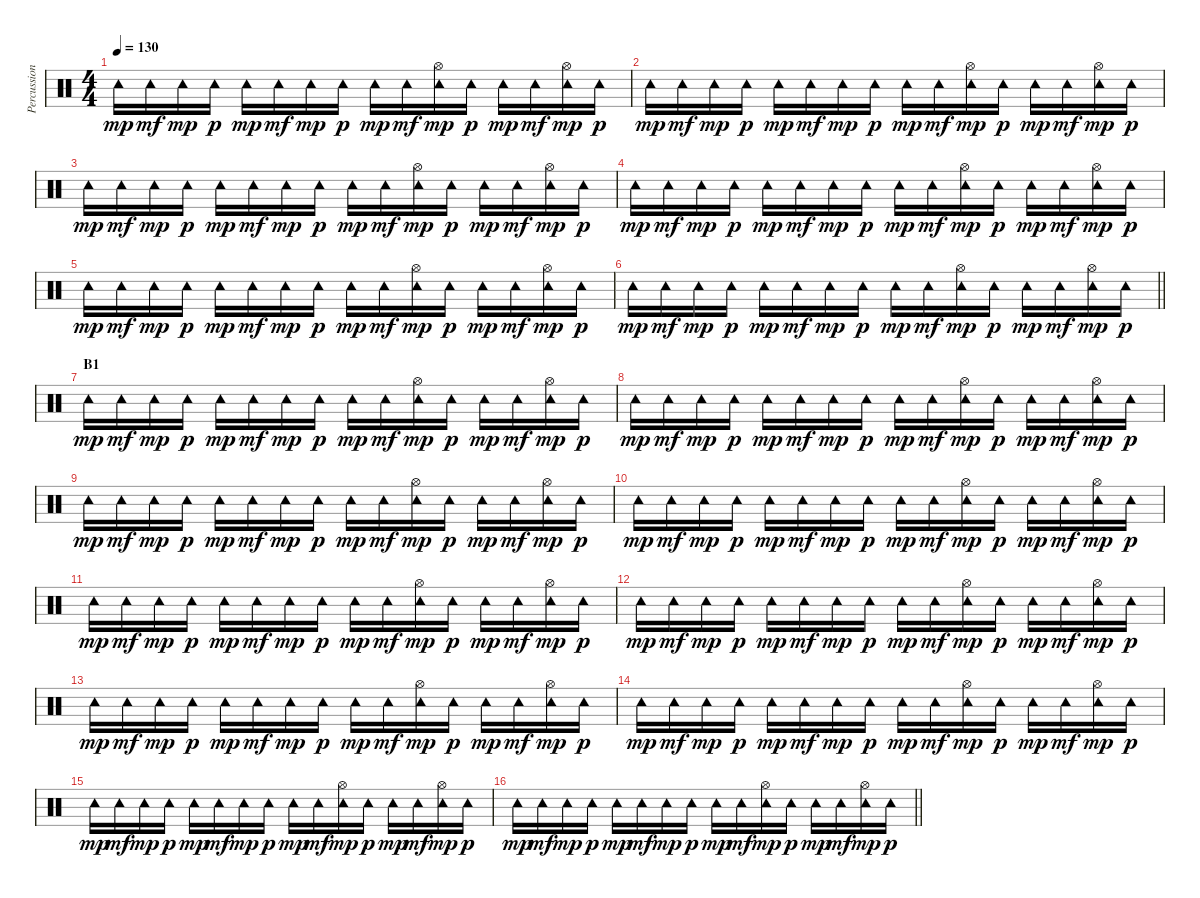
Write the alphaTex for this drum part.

\track ("Percussion (Programmed)" "Percussion") {instrument percussion}
\staff {score}
\articulation defaults
\ts (4 4)
\tempo 130
\clef neutral
\ks c "Tambourine (hit)".16{dy mp} "Tambourine (hit)".16{dy mf} "Tambourine (hit)".16{dy mp} "Tambourine (hit)".16{dy p} "Tambourine (hit)".16{dy mp} "Tambourine (hit)".16{dy mf} "Tambourine (hit)".16{dy mp} "Tambourine (hit)".16{dy p} "Tambourine (hit)".16{dy mp} "Tambourine (hit)".16{dy mf}
("Tambourine (hit)" "Hi-Hat (open)").16{dy mp} "Tambourine (hit)".16{dy p} "Tambourine (hit)".16{dy mp} "Tambourine (hit)".16{dy mf} ("Tambourine (hit)" "Hi-Hat (open)").16{dy mp} "Tambourine (hit)".16{dy p} |
"Tambourine (hit)".16{dy mp} "Tambourine (hit)".16{dy mf} "Tambourine (hit)".16{dy mp} "Tambourine (hit)".16{dy p} "Tambourine (hit)".16{dy mp} "Tambourine (hit)".16{dy mf} "Tambourine (hit)".16{dy mp} "Tambourine (hit)".16{dy p} "Tambourine (hit)".16{dy mp} "Tambourine (hit)".16{dy mf} ("Tambourine (hit)" "Hi-Hat (open)").16{dy mp} "Tambourine (hit)".16{dy p} "Tambourine (hit)".16{dy mp} "Tambourine (hit)".16{dy mf} ("Tambourine (hit)" "Hi-Hat (open)").16{dy mp} "Tambourine (hit)".16{dy p} |
"Tambourine (hit)".16{dy mp} "Tambourine (hit)".16{dy mf} "Tambourine (hit)".16{dy mp} "Tambourine (hit)".16{dy p} "Tambourine (hit)".16{dy mp} "Tambourine (hit)".16{dy mf} "Tambourine (hit)".16{dy mp} "Tambourine (hit)".16{dy p} "Tambourine (hit)".16{dy mp} "Tambourine (hit)".16{dy mf} ("Tambourine (hit)" "Hi-Hat (open)").16{dy mp} "Tambourine (hit)".16{dy p} "Tambourine (hit)".16{dy mp} "Tambourine (hit)".16{dy mf} ("Tambourine (hit)" "Hi-Hat (open)").16{dy mp} "Tambourine (hit)".16{dy p} |
"Tambourine (hit)".16{dy mp} "Tambourine (hit)".16{dy mf} "Tambourine (hit)".16{dy mp} "Tambourine (hit)".16{dy p} "Tambourine (hit)".16{dy mp} "Tambourine (hit)".16{dy mf} "Tambourine (hit)".16{dy mp} "Tambourine (hit)".16{dy p} "Tambourine (hit)".16{dy mp} "Tambourine (hit)".16{dy mf} ("Tambourine (hit)" "Hi-Hat (open)").16{dy mp} "Tambourine (hit)".16{dy p} "Tambourine (hit)".16{dy mp} "Tambourine (hit)".16{dy mf} ("Tambourine (hit)" "Hi-Hat (open)").16{dy mp} "Tambourine (hit)".16{dy p} |
"Tambourine (hit)".16{dy mp} "Tambourine (hit)".16{dy mf} "Tambourine (hit)".16{dy mp} "Tambourine (hit)".16{dy p} "Tambourine (hit)".16{dy mp} "Tambourine (hit)".16{dy mf} "Tambourine (hit)".16{dy mp} "Tambourine (hit)".16{dy p} "Tambourine (hit)".16{dy mp} "Tambourine (hit)".16{dy mf} ("Tambourine (hit)" "Hi-Hat (open)").16{dy mp} "Tambourine (hit)".16{dy p} "Tambourine (hit)".16{dy mp} "Tambourine (hit)".16{dy mf} ("Tambourine (hit)" "Hi-Hat (open)").16{dy mp} "Tambourine (hit)".16{dy p} |
\barLineRight lightlight "Tambourine (hit)".16{dy mp} "Tambourine (hit)".16{dy mf} "Tambourine (hit)".16{dy mp} "Tambourine (hit)".16{dy p} "Tambourine (hit)".16{dy mp} "Tambourine (hit)".16{dy mf} "Tambourine (hit)".16{dy mp} "Tambourine (hit)".16{dy p} "Tambourine (hit)".16{dy mp} "Tambourine (hit)".16{dy mf}
("Tambourine (hit)" "Hi-Hat (open)").16{dy mp} "Tambourine (hit)".16{dy p} "Tambourine (hit)".16{dy mp} "Tambourine (hit)".16{dy mf} ("Tambourine (hit)" "Hi-Hat (open)").16{dy mp} "Tambourine (hit)".16{dy p} |
\section ("" "B1")
"Tambourine (hit)".16{dy mp} "Tambourine (hit)".16{dy mf} "Tambourine (hit)".16{dy mp} "Tambourine (hit)".16{dy p} "Tambourine (hit)".16{dy mp} "Tambourine (hit)".16{dy mf} "Tambourine (hit)".16{dy mp} "Tambourine (hit)".16{dy p} "Tambourine (hit)".16{dy mp} "Tambourine (hit)".16{dy mf} ("Tambourine (hit)" "Hi-Hat (open)").16{dy mp} "Tambourine (hit)".16{dy p} "Tambourine (hit)".16{dy mp} "Tambourine (hit)".16{dy mf} ("Tambourine (hit)" "Hi-Hat (open)").16{dy mp} "Tambourine (hit)".16{dy p} |
"Tambourine (hit)".16{dy mp} "Tambourine (hit)".16{dy mf} "Tambourine (hit)".16{dy mp} "Tambourine (hit)".16{dy p} "Tambourine (hit)".16{dy mp} "Tambourine (hit)".16{dy mf} "Tambourine (hit)".16{dy mp} "Tambourine (hit)".16{dy p} "Tambourine (hit)".16{dy mp} "Tambourine (hit)".16{dy mf} ("Tambourine (hit)" "Hi-Hat (open)").16{dy mp} "Tambourine (hit)".16{dy p} "Tambourine (hit)".16{dy mp} "Tambourine (hit)".16{dy mf} ("Tambourine (hit)" "Hi-Hat (open)").16{dy mp} "Tambourine (hit)".16{dy p} |
"Tambourine (hit)".16{dy mp} "Tambourine (hit)".16{dy mf} "Tambourine (hit)".16{dy mp} "Tambourine (hit)".16{dy p} "Tambourine (hit)".16{dy mp} "Tambourine (hit)".16{dy mf} "Tambourine (hit)".16{dy mp} "Tambourine (hit)".16{dy p} "Tambourine (hit)".16{dy mp} "Tambourine (hit)".16{dy mf} ("Tambourine (hit)" "Hi-Hat (open)").16{dy mp} "Tambourine (hit)".16{dy p} "Tambourine (hit)".16{dy mp} "Tambourine (hit)".16{dy mf} ("Tambourine (hit)" "Hi-Hat (open)").16{dy mp} "Tambourine (hit)".16{dy p} |
"Tambourine (hit)".16{dy mp} "Tambourine (hit)".16{dy mf} "Tambourine (hit)".16{dy mp} "Tambourine (hit)".16{dy p} "Tambourine (hit)".16{dy mp} "Tambourine (hit)".16{dy mf} "Tambourine (hit)".16{dy mp} "Tambourine (hit)".16{dy p} "Tambourine (hit)".16{dy mp} "Tambourine (hit)".16{dy mf} ("Tambourine (hit)" "Hi-Hat (open)").16{dy mp} "Tambourine (hit)".16{dy p} "Tambourine (hit)".16{dy mp} "Tambourine (hit)".16{dy mf} ("Tambourine (hit)" "Hi-Hat (open)").16{dy mp} "Tambourine (hit)".16{dy p} |
"Tambourine (hit)".16{dy mp} "Tambourine (hit)".16{dy mf} "Tambourine (hit)".16{dy mp} "Tambourine (hit)".16{dy p} "Tambourine (hit)".16{dy mp} "Tambourine (hit)".16{dy mf} "Tambourine (hit)".16{dy mp} "Tambourine (hit)".16{dy p} "Tambourine (hit)".16{dy mp} "Tambourine (hit)".16{dy mf} ("Tambourine (hit)" "Hi-Hat (open)").16{dy mp} "Tambourine (hit)".16{dy p} "Tambourine (hit)".16{dy mp} "Tambourine (hit)".16{dy mf} ("Tambourine (hit)" "Hi-Hat (open)").16{dy mp} "Tambourine (hit)".16{dy p} |
"Tambourine (hit)".16{dy mp} "Tambourine (hit)".16{dy mf} "Tambourine (hit)".16{dy mp} "Tambourine (hit)".16{dy p} "Tambourine (hit)".16{dy mp} "Tambourine (hit)".16{dy mf} "Tambourine (hit)".16{dy mp} "Tambourine (hit)".16{dy p} "Tambourine (hit)".16{dy mp} "Tambourine (hit)".16{dy mf} ("Tambourine (hit)" "Hi-Hat (open)").16{dy mp} "Tambourine (hit)".16{dy p} "Tambourine (hit)".16{dy mp} "Tambourine (hit)".16{dy mf} ("Tambourine (hit)" "Hi-Hat (open)").16{dy mp} "Tambourine (hit)".16{dy p} |
"Tambourine (hit)".16{dy mp} "Tambourine (hit)".16{dy mf} "Tambourine (hit)".16{dy mp} "Tambourine (hit)".16{dy p} "Tambourine (hit)".16{dy mp} "Tambourine (hit)".16{dy mf} "Tambourine (hit)".16{dy mp} "Tambourine (hit)".16{dy p} "Tambourine (hit)".16{dy mp} "Tambourine (hit)".16{dy mf} ("Tambourine (hit)" "Hi-Hat (open)").16{dy mp} "Tambourine (hit)".16{dy p} "Tambourine (hit)".16{dy mp} "Tambourine (hit)".16{dy mf} ("Tambourine (hit)" "Hi-Hat (open)").16{dy mp} "Tambourine (hit)".16{dy p} |
"Tambourine (hit)".16{dy mp} "Tambourine (hit)".16{dy mf} "Tambourine (hit)".16{dy mp} "Tambourine (hit)".16{dy p} "Tambourine (hit)".16{dy mp} "Tambourine (hit)".16{dy mf} "Tambourine (hit)".16{dy mp} "Tambourine (hit)".16{dy p} "Tambourine (hit)".16{dy mp} "Tambourine (hit)".16{dy mf} ("Tambourine (hit)" "Hi-Hat (open)").16{dy mp} "Tambourine (hit)".16{dy p} "Tambourine (hit)".16{dy mp} "Tambourine (hit)".16{dy mf} ("Tambourine (hit)" "Hi-Hat (open)").16{dy mp} "Tambourine (hit)".16{dy p} |
"Tambourine (hit)".16{dy mp} "Tambourine (hit)".16{dy mf} "Tambourine (hit)".16{dy mp} "Tambourine (hit)".16{dy p} "Tambourine (hit)".16{dy mp} "Tambourine (hit)".16{dy mf} "Tambourine (hit)".16{dy mp} "Tambourine (hit)".16{dy p} "Tambourine (hit)".16{dy mp} "Tambourine (hit)".16{dy mf} ("Tambourine (hit)" "Hi-Hat (open)").16{dy mp} "Tambourine (hit)".16{dy p} "Tambourine (hit)".16{dy mp} "Tambourine (hit)".16{dy mf} ("Tambourine (hit)" "Hi-Hat (open)").16{dy mp} "Tambourine (hit)".16{dy p} |
\barLineRight lightlight "Tambourine (hit)".16{dy mp} "Tambourine (hit)".16{dy mf} "Tambourine (hit)".16{dy mp} "Tambourine (hit)".16{dy p} "Tambourine (hit)".16{dy mp} "Tambourine (hit)".16{dy mf} "Tambourine (hit)".16{dy mp} "Tambourine (hit)".16{dy p} "Tambourine (hit)".16{dy mp} "Tambourine (hit)".16{dy mf}
("Tambourine (hit)" "Hi-Hat (open)").16{dy mp} "Tambourine (hit)".16{dy p} "Tambourine (hit)".16{dy mp} "Tambourine (hit)".16{dy mf} ("Tambourine (hit)" "Hi-Hat (open)").16{dy mp} "Tambourine (hit)".16{dy p}
